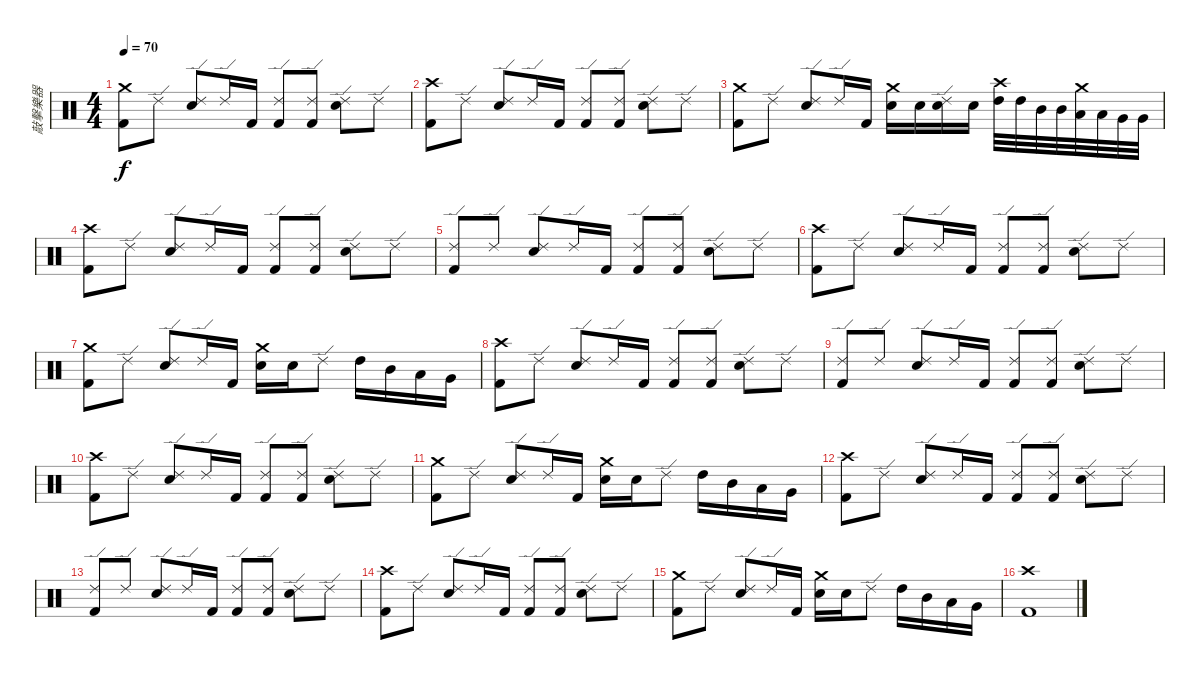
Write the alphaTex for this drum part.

\track ("敲擊樂器" "敲擊樂器") {instrument percussion}
\staff {score}
\articulation defaults
\ts (4 4)
\tempo 70
\clef neutral
\ks c
("Crash medium (hit)" "Kick (hit) 2").8{dy f} "Ride (edge) 2".8 ("Ride (edge) 2" "Snare (hit) 2").8 "Ride (edge) 2".16 "Kick (hit) 2".16 ("Ride (edge) 2" "Kick (hit) 2").8 ("Ride (edge) 2" "Kick (hit) 2").8 ("Ride (edge) 2" "Snare (hit) 2").8 "Ride (edge) 2".8 |
("Crash high (hit)" "Kick (hit) 2").8 "Ride (edge) 2".8 ("Ride (edge) 2" "Snare (hit) 2").8 "Ride (edge) 2".16 "Kick (hit) 2".16 ("Ride (edge) 2" "Kick (hit) 2").8 ("Ride (edge) 2" "Kick (hit) 2").8 ("Ride (edge) 2" "Snare (hit) 2").8 "Ride (edge) 2".8 |
("Crash medium (hit)" "Kick (hit) 2").8 "Ride (edge) 2".8 ("Ride (edge) 2" "Snare (hit) 2").8 "Ride (edge) 2".16 "Kick (hit) 2".16 ("Crash medium (hit)" "Snare (hit) 2").16 "Snare (hit) 2".16 ("Ride (edge) 2" "Snare (hit) 2").16 "Snare (hit) 2".16 ("Crash high (hit)" "High Tom (hit)").32 "High Tom (hit)".32 "Mid Tom (hit)".32 "Mid Tom (hit)".32 ("Crash medium (hit)" "Low Tom (hit)").32 "Low Tom (hit)".32 "Very Low Tom (hit)".32 "Very Low Tom (hit)".32 |
("Crash high (hit)" "Kick (hit) 2").8 "Ride (edge) 2".8 ("Ride (edge) 2" "Snare (hit) 2").8 "Ride (edge) 2".16 "Kick (hit) 2".16 ("Ride (edge) 2" "Kick (hit) 2").8 ("Ride (edge) 2" "Kick (hit) 2").8 ("Ride (edge) 2" "Snare (hit) 2").8 "Ride (edge) 2".8 |
("Ride (edge) 2" "Kick (hit) 2").8 "Ride (edge) 2".8 ("Ride (edge) 2" "Snare (hit) 2").8 "Ride (edge) 2".16 "Kick (hit) 2".16 ("Ride (edge) 2" "Kick (hit) 2").8 ("Ride (edge) 2" "Kick (hit) 2").8 ("Ride (edge) 2" "Snare (hit) 2").8 "Ride (edge) 2".8 |
("Crash high (hit)" "Kick (hit) 2").8 "Ride (edge) 2".8 ("Ride (edge) 2" "Snare (hit) 2").8 "Ride (edge) 2".16 "Kick (hit) 2".16 ("Ride (edge) 2" "Kick (hit) 2").8 ("Ride (edge) 2" "Kick (hit) 2").8 ("Ride (edge) 2" "Snare (hit) 2").8 "Ride (edge) 2".8 |
("Crash medium (hit)" "Kick (hit) 2").8 "Ride (edge) 2".8 ("Ride (edge) 2" "Snare (hit) 2").8 "Ride (edge) 2".16 "Kick (hit) 2".16 ("Crash medium (hit)" "Snare (hit) 2").16 "Snare (hit) 2".16 "Ride (edge) 2".8 "High Tom (hit)".16 "Mid Tom (hit)".16 "Low Tom (hit)".16 "Very Low Tom (hit)".16 |
("Crash high (hit)" "Kick (hit) 2").8 "Ride (edge) 2".8 ("Ride (edge) 2" "Snare (hit) 2").8 "Ride (edge) 2".16 "Kick (hit) 2".16 ("Ride (edge) 2" "Kick (hit) 2").8 ("Ride (edge) 2" "Kick (hit) 2").8 ("Ride (edge) 2" "Snare (hit) 2").8 "Ride (edge) 2".8 |
("Ride (edge) 2" "Kick (hit) 2").8 "Ride (edge) 2".8 ("Ride (edge) 2" "Snare (hit) 2").8 "Ride (edge) 2".16 "Kick (hit) 2".16 ("Ride (edge) 2" "Kick (hit) 2").8 ("Ride (edge) 2" "Kick (hit) 2").8 ("Ride (edge) 2" "Snare (hit) 2").8 "Ride (edge) 2".8 |
("Crash high (hit)" "Kick (hit) 2").8 "Ride (edge) 2".8 ("Ride (edge) 2" "Snare (hit) 2").8 "Ride (edge) 2".16 "Kick (hit) 2".16 ("Ride (edge) 2" "Kick (hit) 2").8 ("Ride (edge) 2" "Kick (hit) 2").8 ("Ride (edge) 2" "Snare (hit) 2").8 "Ride (edge) 2".8 |
("Crash medium (hit)" "Kick (hit) 2").8 "Ride (edge) 2".8 ("Ride (edge) 2" "Snare (hit) 2").8 "Ride (edge) 2".16 "Kick (hit) 2".16 ("Crash medium (hit)" "Snare (hit) 2").16 "Snare (hit) 2".16 "Ride (edge) 2".8 "High Tom (hit)".16 "Mid Tom (hit)".16 "Low Tom (hit)".16 "Very Low Tom (hit)".16 |
("Crash high (hit)" "Kick (hit) 2").8 "Ride (edge) 2".8 ("Ride (edge) 2" "Snare (hit) 2").8 "Ride (edge) 2".16 "Kick (hit) 2".16 ("Ride (edge) 2" "Kick (hit) 2").8 ("Ride (edge) 2" "Kick (hit) 2").8 ("Ride (edge) 2" "Snare (hit) 2").8 "Ride (edge) 2".8 |
("Ride (edge) 2" "Kick (hit) 2").8 "Ride (edge) 2".8 ("Ride (edge) 2" "Snare (hit) 2").8 "Ride (edge) 2".16 "Kick (hit) 2".16 ("Ride (edge) 2" "Kick (hit) 2").8 ("Ride (edge) 2" "Kick (hit) 2").8 ("Ride (edge) 2" "Snare (hit) 2").8 "Ride (edge) 2".8 |
("Crash high (hit)" "Kick (hit) 2").8 "Ride (edge) 2".8 ("Ride (edge) 2" "Snare (hit) 2").8 "Ride (edge) 2".16 "Kick (hit) 2".16 ("Ride (edge) 2" "Kick (hit) 2").8 ("Ride (edge) 2" "Kick (hit) 2").8 ("Ride (edge) 2" "Snare (hit) 2").8 "Ride (edge) 2".8 |
("Crash medium (hit)" "Kick (hit) 2").8 "Ride (edge) 2".8 ("Ride (edge) 2" "Snare (hit) 2").8 "Ride (edge) 2".16 "Kick (hit) 2".16 ("Crash medium (hit)" "Snare (hit) 2").16 "Snare (hit) 2".16 "Ride (edge) 2".8 "High Tom (hit)".16 "Mid Tom (hit)".16 "Low Tom (hit)".16 "Very Low Tom (hit)".16 |
("Crash high (hit)" "Kick (hit) 2").1
